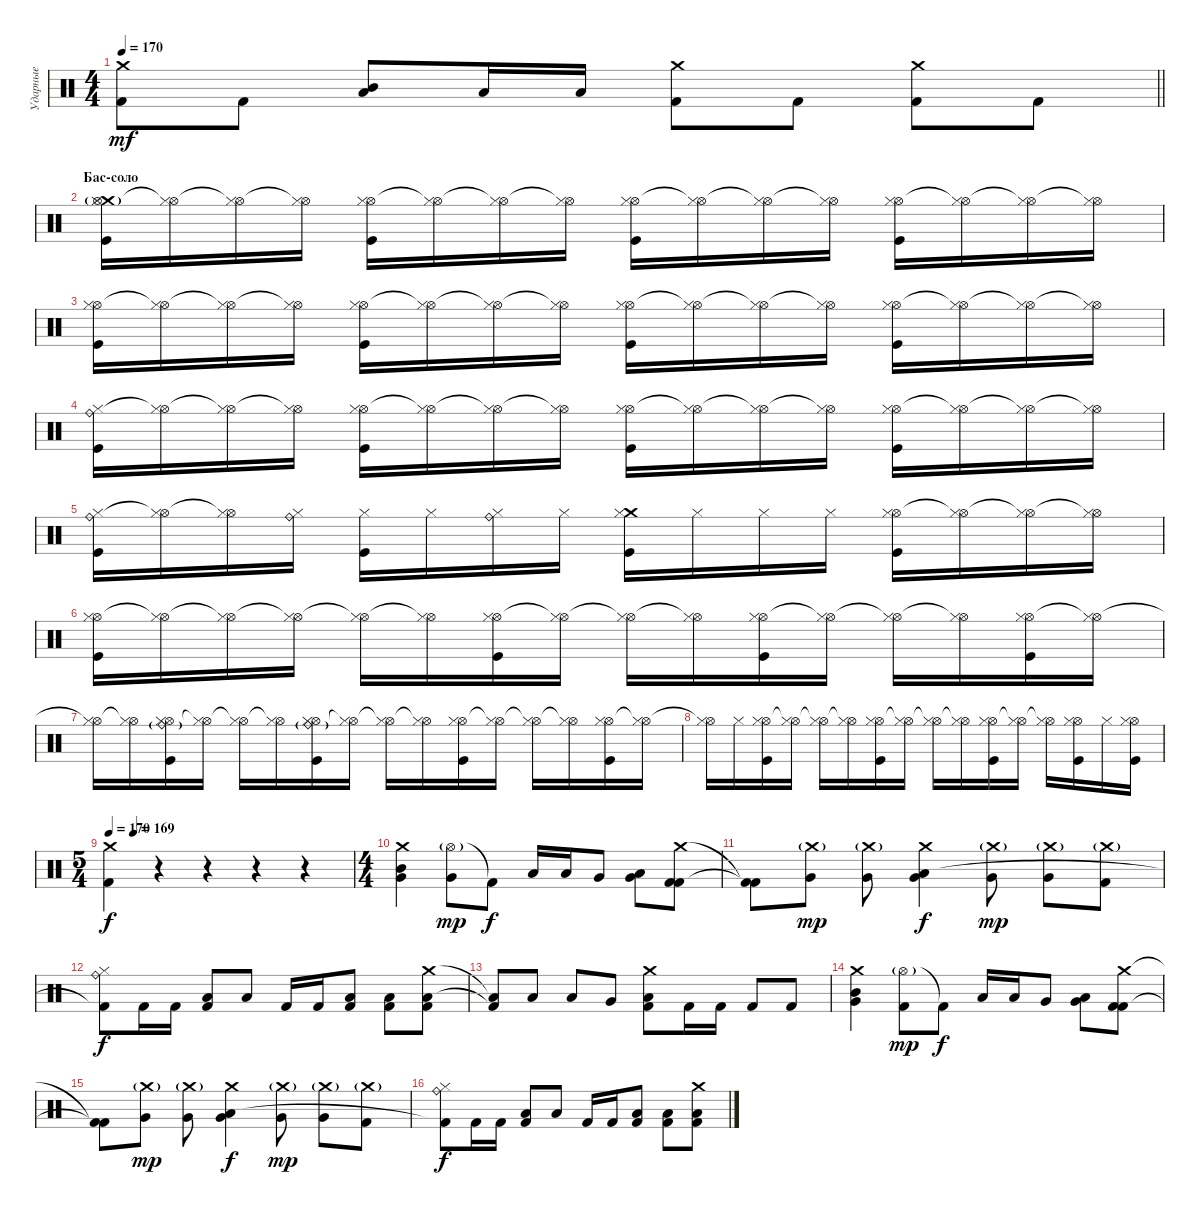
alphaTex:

\track ("Ударные" "Ударные") {instrument percussion}
\staff {score}
\articulation defaults
\ts (4 4)
\tempo 170
\clef neutral
\barLineRight lightlight
\ks c
("Crash medium (hit)" "Kick (hit) 2").8{dy mf} "Kick (hit) 2".8 ("Mid Tom (hit)" "Low Tom (hit)").8 "Low Tom (hit)".16 "Low Tom (hit)".16 ("Crash medium (hit)" "Kick (hit) 2").8 "Kick (hit) 2".8 ("Crash medium (hit)" "Kick (hit) 2").8 "Kick (hit) 2".8 |
\section ("" "Бас-соло")
("Crash medium (hit)"{g} "Hi-Hat (open)" "Hi-Hat (closed)" "Kick (hit)").16 ("Hi-Hat (open)"{t} "Hi-Hat (closed)").16 ("Hi-Hat (open)"{t} "Hi-Hat (closed)").16 ("Hi-Hat (open)"{t} "Hi-Hat (closed)").16 ("Hi-Hat (open)" "Hi-Hat (closed)" "Kick (hit)").16 ("Hi-Hat (open)"{t} "Hi-Hat (closed)").16 ("Hi-Hat (open)"{t} "Hi-Hat (closed)").16 ("Hi-Hat (open)"{t} "Hi-Hat (closed)").16 ("Hi-Hat (open)" "Hi-Hat (closed)" "Kick (hit)").16 ("Hi-Hat (open)"{t} "Hi-Hat (closed)").16 ("Hi-Hat (open)"{t} "Hi-Hat (closed)").16 ("Hi-Hat (open)"{t} "Hi-Hat (closed)").16 ("Hi-Hat (open)" "Hi-Hat (closed)" "Kick (hit)").16 ("Hi-Hat (open)"{t} "Hi-Hat (closed)").16 ("Hi-Hat (open)"{t} "Hi-Hat (closed)").16 ("Hi-Hat (open)"{t} "Hi-Hat (closed)").16 |
("Hi-Hat (open)" "Hi-Hat (closed)" "Kick (hit)").16 ("Hi-Hat (open)"{t} "Hi-Hat (closed)").16 ("Hi-Hat (open)"{t} "Hi-Hat (closed)").16 ("Hi-Hat (open)"{t} "Hi-Hat (closed)").16 ("Hi-Hat (open)" "Hi-Hat (closed)" "Kick (hit)").16 ("Hi-Hat (open)"{t} "Hi-Hat (closed)").16 ("Hi-Hat (open)"{t} "Hi-Hat (closed)").16 ("Hi-Hat (open)"{t} "Hi-Hat (closed)").16 ("Hi-Hat (open)" "Hi-Hat (closed)" "Kick (hit)").16 ("Hi-Hat (open)"{t} "Hi-Hat (closed)").16 ("Hi-Hat (open)"{t} "Hi-Hat (closed)").16 ("Hi-Hat (open)"{t} "Hi-Hat (closed)").16 ("Hi-Hat (open)" "Hi-Hat (closed)" "Kick (hit)").16 ("Hi-Hat (open)"{t} "Hi-Hat (closed)").16 ("Hi-Hat (open)"{t} "Hi-Hat (closed)").16 ("Hi-Hat (open)"{t} "Hi-Hat (closed)").16 |
("Ride (bell)" "Hi-Hat (closed)" "Kick (hit)").16 ("Hi-Hat (open)"{t} "Hi-Hat (closed)").16 ("Hi-Hat (open)"{t} "Hi-Hat (closed)").16 ("Hi-Hat (open)"{t} "Hi-Hat (closed)").16 ("Hi-Hat (open)" "Hi-Hat (closed)" "Kick (hit)").16 ("Hi-Hat (open)"{t} "Hi-Hat (closed)").16 ("Hi-Hat (open)"{t} "Hi-Hat (closed)").16 ("Hi-Hat (open)"{t} "Hi-Hat (closed)").16 ("Hi-Hat (open)" "Hi-Hat (closed)" "Kick (hit)").16 ("Hi-Hat (open)"{t} "Hi-Hat (closed)").16 ("Hi-Hat (open)"{t} "Hi-Hat (closed)").16 ("Hi-Hat (open)"{t} "Hi-Hat (closed)").16 ("Hi-Hat (open)" "Hi-Hat (closed)" "Kick (hit)").16 ("Hi-Hat (open)"{t} "Hi-Hat (closed)").16 ("Hi-Hat (open)"{t} "Hi-Hat (closed)").16 ("Hi-Hat (open)"{t} "Hi-Hat (closed)").16 |
("Ride (bell)" "Hi-Hat (closed)" "Kick (hit)").16 ("Hi-Hat (open)"{t} "Hi-Hat (closed)").16 ("Hi-Hat (open)"{t} "Hi-Hat (closed)").16 ("Ride (bell)" "Hi-Hat (closed)").16 ("Hi-Hat (closed)" "Kick (hit)").16 "Hi-Hat (closed)".16 ("Ride (bell)" "Hi-Hat (closed)").16 "Hi-Hat (closed)".16 ("Crash medium (hit)" "Hi-Hat (closed)" "Kick (hit)").16 "Hi-Hat (closed)".16 "Hi-Hat (closed)".16 "Hi-Hat (closed)".16 ("Hi-Hat (open)" "Hi-Hat (closed)" "Kick (hit)").16 ("Hi-Hat (open)"{t} "Hi-Hat (closed)").16 ("Hi-Hat (open)"{t} "Hi-Hat (closed)").16 ("Hi-Hat (open)"{t} "Hi-Hat (closed)").16 |
("Hi-Hat (open)" "Hi-Hat (closed)" "Kick (hit)").16 ("Hi-Hat (open)"{t} "Hi-Hat (closed)").16 ("Hi-Hat (open)"{t} "Hi-Hat (closed)").16 ("Hi-Hat (open)"{t} "Hi-Hat (closed)").16 ("Hi-Hat (open)"{t} "Hi-Hat (closed)").16 ("Hi-Hat (open)"{t} "Hi-Hat (closed)").16 ("Hi-Hat (open)" "Hi-Hat (closed)" "Kick (hit)").16 ("Hi-Hat (open)"{t} "Hi-Hat (closed)").16 ("Hi-Hat (open)"{t} "Hi-Hat (closed)").16 ("Hi-Hat (open)"{t} "Hi-Hat (closed)").16 ("Hi-Hat (open)" "Hi-Hat (closed)" "Kick (hit)").16 ("Hi-Hat (open)"{t} "Hi-Hat (closed)").16 ("Hi-Hat (open)"{t} "Hi-Hat (closed)").16 ("Hi-Hat (open)"{t} "Hi-Hat (closed)").16 ("Hi-Hat (open)" "Hi-Hat (closed)" "Kick (hit)").16 ("Hi-Hat (open)"{t} "Hi-Hat (closed)").16 |
("Hi-Hat (open)"{t} "Hi-Hat (closed)").16 ("Hi-Hat (open)"{t} "Hi-Hat (closed)").16 ("Ride (bell)"{g} "Hi-Hat (open)" "Hi-Hat (closed)" "Kick (hit)").16 ("Hi-Hat (open)"{t} "Hi-Hat (closed)").16 ("Hi-Hat (open)"{t} "Hi-Hat (closed)").16 ("Hi-Hat (open)"{t} "Hi-Hat (closed)").16 ("Ride (bell)"{g} "Hi-Hat (open)" "Hi-Hat (closed)" "Kick (hit)").16 ("Hi-Hat (open)"{t} "Hi-Hat (closed)").16 ("Hi-Hat (open)"{t} "Hi-Hat (closed)").16 ("Hi-Hat (open)"{t} "Hi-Hat (closed)").16 ("Hi-Hat (open)" "Hi-Hat (closed)" "Kick (hit)").16 ("Hi-Hat (open)"{t} "Hi-Hat (closed)").16 ("Hi-Hat (open)"{t} "Hi-Hat (closed)").16 ("Hi-Hat (open)"{t} "Hi-Hat (closed)").16 ("Hi-Hat (open)" "Hi-Hat (closed)" "Kick (hit)").16 ("Hi-Hat (open)"{t} "Hi-Hat (closed)").16 |
("Hi-Hat (open)"{t} "Hi-Hat (closed)").16 "Hi-Hat (closed)".16 ("Hi-Hat (open)" "Hi-Hat (closed)" "Kick (hit)").16 ("Hi-Hat (open)"{t} "Hi-Hat (closed)").16 ("Hi-Hat (open)"{t} "Hi-Hat (closed)").16 ("Hi-Hat (open)"{t} "Hi-Hat (closed)").16 ("Hi-Hat (open)" "Hi-Hat (closed)" "Kick (hit)").16 ("Hi-Hat (open)"{t} "Hi-Hat (closed)").16 ("Hi-Hat (open)"{t} "Hi-Hat (closed)").16 ("Hi-Hat (open)"{t} "Hi-Hat (closed)").16 ("Hi-Hat (open)" "Hi-Hat (closed)" "Kick (hit)").16 ("Hi-Hat (open)"{t} "Hi-Hat (closed)").16 ("Hi-Hat (open)"{t} "Hi-Hat (closed)").16 ("Hi-Hat (open)" "Hi-Hat (closed)" "Kick (hit)").16 "Hi-Hat (closed)".16 ("Hi-Hat (open)" "Hi-Hat (closed)" "Kick (hit)").16 |
\ts (5 4)
\tempo 170
\tempo (169 0.1)
("Crash medium (hit)" "Kick (hit) 2").4{dy f} r.4 r.4 r.4 r.4 |
\ts (4 4)
("Crash medium (hit)" "Mid Tom (hit)" "Very Low Tom (hit)").4 ("Hi-Hat (open)"{g} "Very Low Tom (hit)").8{dy mp} "Kick (hit) 2"{t}.8{dy f} "Low Tom (hit)".16 "Low Tom (hit)".16 "Very Low Tom (hit)".8 ("Low Tom (hit)" "Very Low Tom (hit)").8 ("Crash medium (hit)" "Kick (hit) 2" "Kick (hit) 2").8 |
("Kick (hit) 2"{t} "Kick (hit) 2"{t}).8 ("Crash medium (hit)"{g} "Very Low Tom (hit)").8{dy mp} ("Crash medium (hit)"{g} "Very Low Tom (hit)").8 ("Crash medium (hit)" "Very Low Tom (hit)" "Low Tom (hit)").4{dy f} ("Crash medium (hit)"{g} "Very Low Tom (hit)").8{dy mp} ("Crash medium (hit)"{g} "Very Low Tom (hit)").8 ("Crash medium (hit)"{g} "Kick (hit) 2").8 |
("Ride (bell)" "Hi-Hat (closed)" "Kick (hit) 2"{t}).8{dy f} "Kick (hit) 2".16 "Kick (hit) 2".16 ("Low Tom (hit)" "Kick (hit) 2").8 "Low Tom (hit)".8 "Kick (hit) 2".16 "Kick (hit) 2".16 ("Low Tom (hit)" "Kick (hit) 2").8 ("Low Tom (hit)" "Kick (hit) 2").8 ("Crash medium (hit)" "Low Tom (hit)" "Kick (hit) 2").8 |
("Low Tom (hit)"{t} "Kick (hit) 2"{t}).8 "Low Floor Tom (hit)".8 "Low Tom (hit)".8 "Very Low Tom (hit)".8 ("Crash medium (hit)" "Low Tom (hit)" "Kick (hit) 2").8 "Kick (hit) 2".16 "Kick (hit) 2".16 "Kick (hit) 2".8 "Kick (hit) 2".8 |
("Crash medium (hit)" "Mid Tom (hit)" "Very Low Tom (hit)").4 ("Hi-Hat (open)"{g} "Kick (hit) 2").8{dy mp} "Kick (hit) 2"{t}.8{dy f} "Low Tom (hit)".16 "Low Tom (hit)".16 "Very Low Tom (hit)".8 ("Low Tom (hit)" "Very Low Tom (hit)").8 ("Crash medium (hit)" "Kick (hit) 2" "Kick (hit) 2").8 |
("Kick (hit) 2"{t} "Kick (hit) 2"{t}).8 ("Crash medium (hit)"{g} "Very Low Tom (hit)").8{dy mp} ("Crash medium (hit)"{g} "Very Low Tom (hit)").8 ("Crash medium (hit)" "Very Low Tom (hit)" "Low Tom (hit)").4{dy f} ("Crash medium (hit)"{g} "Very Low Tom (hit)").8{dy mp} ("Crash medium (hit)"{g} "Very Low Tom (hit)").8 ("Crash medium (hit)"{g} "Kick (hit) 2").8 |
("Ride (bell)" "Hi-Hat (closed)" "Kick (hit) 2"{t}).8{dy f} "Kick (hit) 2".16 "Kick (hit) 2".16 ("Low Tom (hit)" "Kick (hit) 2").8 "Low Tom (hit)".8 "Kick (hit) 2".16 "Kick (hit) 2".16 ("Low Tom (hit)" "Kick (hit) 2").8 ("Low Tom (hit)" "Kick (hit) 2").8 ("Crash medium (hit)" "Low Tom (hit)" "Kick (hit) 2").8
